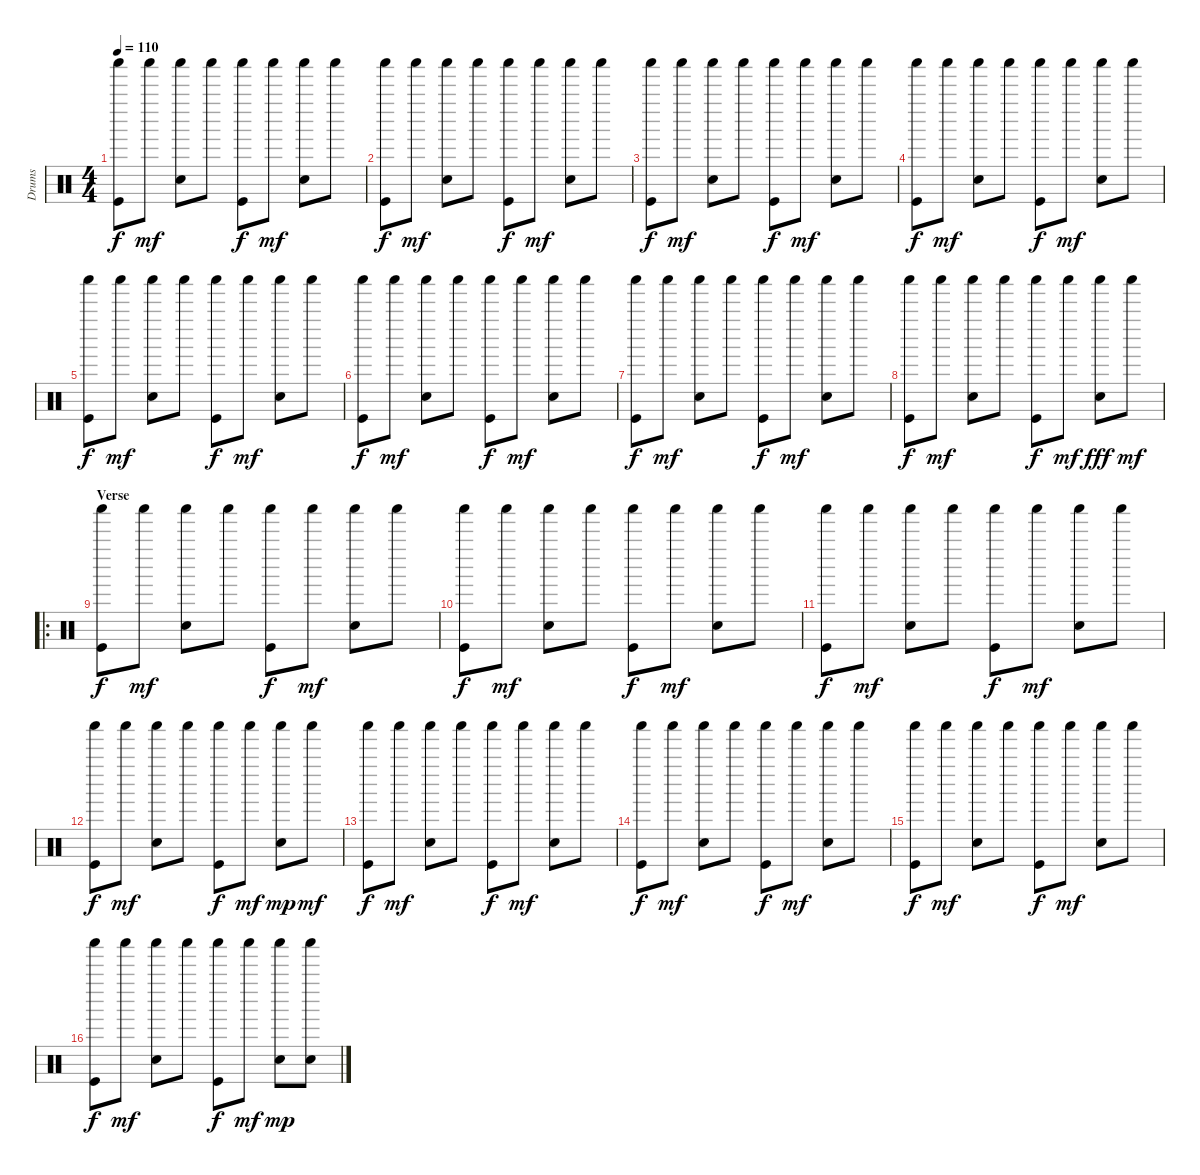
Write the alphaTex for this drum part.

\track ("Drums" "Drums") {instrument percussion}
\staff {score}
\articulation defaults
\ts (4 4)
\tempo 110
\clef neutral
\ks c
("Shaker (hit)" "Kick (hit)").8{dy f} "Shaker (hit)".8{dy mf} ("Shaker (hit)" "Snare (hit) 2").8 "Shaker (hit)".8 ("Shaker (hit)" "Kick (hit)").8{dy f} "Shaker (hit)".8{dy mf} ("Shaker (hit)" "Snare (hit) 2").8 "Shaker (hit)".8 |
("Shaker (hit)" "Kick (hit)").8{dy f} "Shaker (hit)".8{dy mf} ("Shaker (hit)" "Snare (hit) 2").8 "Shaker (hit)".8 ("Shaker (hit)" "Kick (hit)").8{dy f} "Shaker (hit)".8{dy mf} ("Shaker (hit)" "Snare (hit) 2").8 "Shaker (hit)".8 |
("Shaker (hit)" "Kick (hit)").8{dy f} "Shaker (hit)".8{dy mf} ("Shaker (hit)" "Snare (hit) 2").8 "Shaker (hit)".8 ("Shaker (hit)" "Kick (hit)").8{dy f} "Shaker (hit)".8{dy mf} ("Shaker (hit)" "Snare (hit) 2").8 "Shaker (hit)".8 |
("Shaker (hit)" "Kick (hit)").8{dy f} "Shaker (hit)".8{dy mf} ("Shaker (hit)" "Snare (hit) 2").8 "Shaker (hit)".8 ("Shaker (hit)" "Kick (hit)").8{dy f} "Shaker (hit)".8{dy mf} ("Shaker (hit)" "Snare (hit) 2").8 "Shaker (hit)".8 |
("Shaker (hit)" "Kick (hit)").8{dy f} "Shaker (hit)".8{dy mf} ("Shaker (hit)" "Snare (hit) 2").8 "Shaker (hit)".8 ("Shaker (hit)" "Kick (hit)").8{dy f} "Shaker (hit)".8{dy mf} ("Shaker (hit)" "Snare (hit) 2").8 "Shaker (hit)".8 |
("Shaker (hit)" "Kick (hit)").8{dy f} "Shaker (hit)".8{dy mf} ("Shaker (hit)" "Snare (hit) 2").8 "Shaker (hit)".8 ("Shaker (hit)" "Kick (hit)").8{dy f} "Shaker (hit)".8{dy mf} ("Shaker (hit)" "Snare (hit) 2").8 "Shaker (hit)".8 |
("Shaker (hit)" "Kick (hit)").8{dy f} "Shaker (hit)".8{dy mf} ("Shaker (hit)" "Snare (hit) 2").8 "Shaker (hit)".8 ("Shaker (hit)" "Kick (hit)").8{dy f} "Shaker (hit)".8{dy mf} ("Shaker (hit)" "Snare (hit) 2").8 "Shaker (hit)".8 |
("Shaker (hit)" "Kick (hit)").8{dy f} "Shaker (hit)".8{dy mf} ("Shaker (hit)" "Snare (hit) 2").8 "Shaker (hit)".8 ("Shaker (hit)" "Kick (hit)").8{dy f} "Shaker (hit)".8{dy mf} ("Shaker (hit)" "Snare (hit) 2").8{dy fff} "Shaker (hit)".8{dy mf} |
\ro
\section ("" "Verse")
("Shaker (hit)" "Kick (hit)").8{dy f} "Shaker (hit)".8{dy mf} ("Shaker (hit)" "Snare (hit) 2").8 "Shaker (hit)".8 ("Shaker (hit)" "Kick (hit)").8{dy f} "Shaker (hit)".8{dy mf} ("Shaker (hit)" "Snare (hit) 2").8 "Shaker (hit)".8 |
("Shaker (hit)" "Kick (hit)").8{dy f} "Shaker (hit)".8{dy mf} ("Shaker (hit)" "Snare (hit) 2").8 "Shaker (hit)".8 ("Shaker (hit)" "Kick (hit)").8{dy f} "Shaker (hit)".8{dy mf} ("Shaker (hit)" "Snare (hit) 2").8 "Shaker (hit)".8 |
("Shaker (hit)" "Kick (hit)").8{dy f} "Shaker (hit)".8{dy mf} ("Shaker (hit)" "Snare (hit) 2").8 "Shaker (hit)".8 ("Shaker (hit)" "Kick (hit)").8{dy f} "Shaker (hit)".8{dy mf} ("Shaker (hit)" "Snare (hit) 2").8 "Shaker (hit)".8 |
("Shaker (hit)" "Kick (hit)").8{dy f} "Shaker (hit)".8{dy mf} ("Shaker (hit)" "Snare (hit) 2").8 "Shaker (hit)".8 ("Shaker (hit)" "Kick (hit)").8{dy f} "Shaker (hit)".8{dy mf} ("Shaker (hit)" "Snare (hit) 2").8{dy mp} "Shaker (hit)".8{dy mf} |
("Shaker (hit)" "Kick (hit)").8{dy f} "Shaker (hit)".8{dy mf} ("Shaker (hit)" "Snare (hit) 2").8 "Shaker (hit)".8 ("Shaker (hit)" "Kick (hit)").8{dy f} "Shaker (hit)".8{dy mf} ("Shaker (hit)" "Snare (hit) 2").8 "Shaker (hit)".8 |
("Shaker (hit)" "Kick (hit)").8{dy f} "Shaker (hit)".8{dy mf} ("Shaker (hit)" "Snare (hit) 2").8 "Shaker (hit)".8 ("Shaker (hit)" "Kick (hit)").8{dy f} "Shaker (hit)".8{dy mf} ("Shaker (hit)" "Snare (hit) 2").8 "Shaker (hit)".8 |
("Shaker (hit)" "Kick (hit)").8{dy f} "Shaker (hit)".8{dy mf} ("Shaker (hit)" "Snare (hit) 2").8 "Shaker (hit)".8 ("Shaker (hit)" "Kick (hit)").8{dy f} "Shaker (hit)".8{dy mf} ("Shaker (hit)" "Snare (hit) 2").8 "Shaker (hit)".8 |
("Shaker (hit)" "Kick (hit)").8{dy f} "Shaker (hit)".8{dy mf} ("Shaker (hit)" "Snare (hit) 2").8 "Shaker (hit)".8 ("Shaker (hit)" "Kick (hit)").8{dy f} "Shaker (hit)".8{dy mf} ("Shaker (hit)" "Snare (hit) 2").8{dy mp} ("Shaker (hit)" "Snare (hit) 2").8
